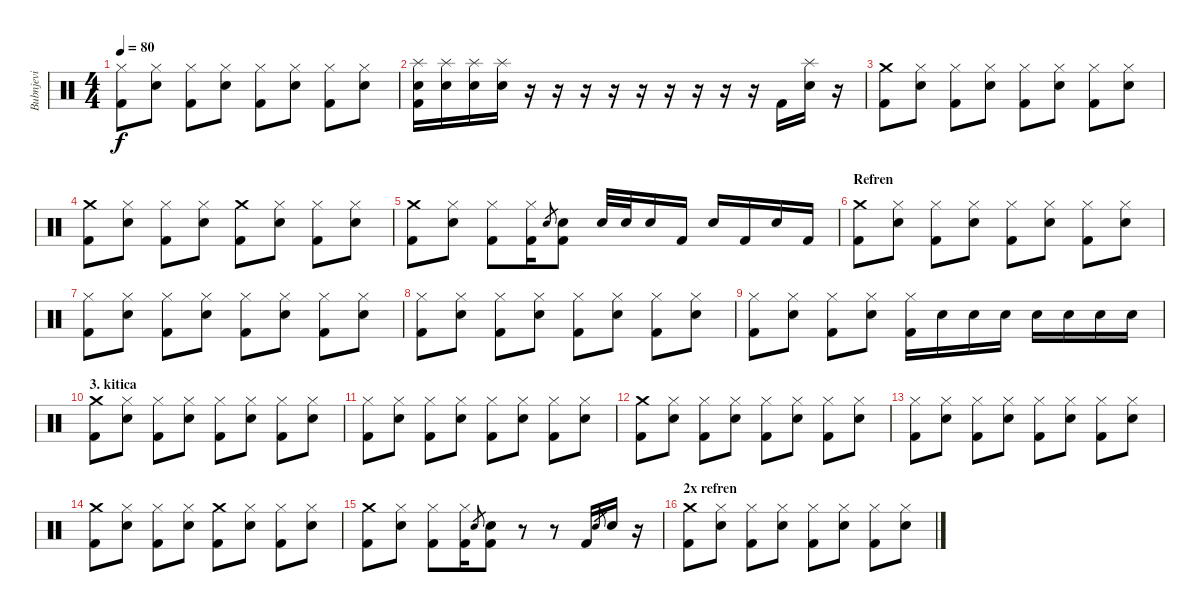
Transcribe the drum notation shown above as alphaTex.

\track ("Bubnjevi" "Bubnjevi") {instrument percussion}
\staff {score}
\articulation defaults
\ts (4 4)
\tempo 80
\clef neutral
\ks c
("Hi-Hat (closed)" "Kick (hit) 2").8{dy f} ("Electric Snare (hit)" "Hi-Hat (closed)").8 ("Hi-Hat (closed)" "Kick (hit) 2").8 ("Electric Snare (hit)" "Hi-Hat (closed)").8 ("Hi-Hat (closed)" "Kick (hit) 2").8 ("Electric Snare (hit)" "Hi-Hat (closed)").8 ("Hi-Hat (closed)" "Kick (hit) 2").8 ("Electric Snare (hit)" "Hi-Hat (closed)").8 |
("Splash (hit)" "Electric Snare (hit)" "Kick (hit) 2").16 ("Splash (hit)" "Electric Snare (hit)").16 ("Splash (hit)" "Electric Snare (hit)").16 ("Splash (hit)" "Electric Snare (hit)").16 r.16 r.16 r.16 r.16 r.16 r.16 r.16 r.16 r.16 "Kick (hit) 2".16 ("Splash (hit)" "Electric Snare (hit)").16 r.16 |
("Crash medium (hit)" "Kick (hit) 2").8 ("Electric Snare (hit)" "Hi-Hat (closed)").8 ("Hi-Hat (closed)" "Kick (hit) 2").8 ("Electric Snare (hit)" "Hi-Hat (closed)").8 ("Hi-Hat (closed)" "Kick (hit) 2").8 ("Electric Snare (hit)" "Hi-Hat (closed)").8 ("Hi-Hat (closed)" "Kick (hit) 2").8 ("Electric Snare (hit)" "Hi-Hat (closed)").8 |
("Crash medium (hit)" "Kick (hit) 2").8 ("Electric Snare (hit)" "Hi-Hat (closed)").8 ("Hi-Hat (closed)" "Kick (hit) 2").8 ("Electric Snare (hit)" "Hi-Hat (closed)").8 ("Crash medium (hit)" "Kick (hit) 2").8 ("Electric Snare (hit)" "Hi-Hat (closed)").8 ("Hi-Hat (closed)" "Kick (hit) 2").8 ("Electric Snare (hit)" "Hi-Hat (closed)").8 |
("Crash medium (hit)" "Kick (hit) 2").8 ("Electric Snare (hit)" "Hi-Hat (closed)").8 ("Hi-Hat (closed)" "Kick (hit) 2").8 ("Hi-Hat (closed)" "Kick (hit) 2").16 "Electric Snare (hit)".8{gr} ("Electric Snare (hit)" "Kick (hit) 2").8 "Electric Snare (hit)".32 "Electric Snare (hit)".32 "Electric Snare (hit)".16 "Kick (hit) 2".16 "Electric Snare (hit)".16 "Kick (hit) 2".16 "Electric Snare (hit)".16 "Kick (hit) 2".16 |
\section ("" "Refren")
("Crash medium (hit)" "Kick (hit) 2").8 ("Electric Snare (hit)" "Hi-Hat (closed)").8 ("Hi-Hat (closed)" "Kick (hit) 2").8 ("Electric Snare (hit)" "Hi-Hat (closed)").8 ("Hi-Hat (closed)" "Kick (hit) 2").8 ("Electric Snare (hit)" "Hi-Hat (closed)").8 ("Hi-Hat (closed)" "Kick (hit) 2").8 ("Electric Snare (hit)" "Hi-Hat (closed)").8 |
("Hi-Hat (closed)" "Kick (hit) 2").8 ("Electric Snare (hit)" "Hi-Hat (closed)").8 ("Hi-Hat (closed)" "Kick (hit) 2").8 ("Electric Snare (hit)" "Hi-Hat (closed)").8 ("Hi-Hat (closed)" "Kick (hit) 2").8 ("Electric Snare (hit)" "Hi-Hat (closed)").8 ("Hi-Hat (closed)" "Kick (hit) 2").8 ("Electric Snare (hit)" "Hi-Hat (closed)").8 |
("Hi-Hat (closed)" "Kick (hit) 2").8 ("Electric Snare (hit)" "Hi-Hat (closed)").8 ("Hi-Hat (closed)" "Kick (hit) 2").8 ("Electric Snare (hit)" "Hi-Hat (closed)").8 ("Hi-Hat (closed)" "Kick (hit) 2").8 ("Electric Snare (hit)" "Hi-Hat (closed)").8 ("Hi-Hat (closed)" "Kick (hit) 2").8 ("Electric Snare (hit)" "Hi-Hat (closed)").8 |
("Hi-Hat (closed)" "Kick (hit) 2").8 ("Electric Snare (hit)" "Hi-Hat (closed)").8 ("Hi-Hat (closed)" "Kick (hit) 2").8 ("Electric Snare (hit)" "Hi-Hat (closed)").8 ("Hi-Hat (closed)" "Kick (hit) 2").16 "Electric Snare (hit)".16 "Electric Snare (hit)".16 "Electric Snare (hit)".16 "Electric Snare (hit)".16 "Electric Snare (hit)".16 "Electric Snare (hit)".16 "Electric Snare (hit)".16 |
\section ("" "3. kitica")
("Crash medium (hit)" "Kick (hit) 2").8 ("Electric Snare (hit)" "Hi-Hat (closed)").8 ("Hi-Hat (closed)" "Kick (hit) 2").8 ("Electric Snare (hit)" "Hi-Hat (closed)").8 ("Hi-Hat (closed)" "Kick (hit) 2").8 ("Electric Snare (hit)" "Hi-Hat (closed)").8 ("Hi-Hat (closed)" "Kick (hit) 2").8 ("Electric Snare (hit)" "Hi-Hat (closed)").8 |
("Hi-Hat (closed)" "Kick (hit) 2").8 ("Electric Snare (hit)" "Hi-Hat (closed)").8 ("Hi-Hat (closed)" "Kick (hit) 2").8 ("Electric Snare (hit)" "Hi-Hat (closed)").8 ("Hi-Hat (closed)" "Kick (hit) 2").8 ("Electric Snare (hit)" "Hi-Hat (closed)").8 ("Hi-Hat (closed)" "Kick (hit) 2").8 ("Electric Snare (hit)" "Hi-Hat (closed)").8 |
("Crash medium (hit)" "Kick (hit) 2").8 ("Electric Snare (hit)" "Hi-Hat (closed)").8 ("Hi-Hat (closed)" "Kick (hit) 2").8 ("Electric Snare (hit)" "Hi-Hat (closed)").8 ("Hi-Hat (closed)" "Kick (hit) 2").8 ("Electric Snare (hit)" "Hi-Hat (closed)").8 ("Hi-Hat (closed)" "Kick (hit) 2").8 ("Electric Snare (hit)" "Hi-Hat (closed)").8 |
("Hi-Hat (closed)" "Kick (hit) 2").8 ("Electric Snare (hit)" "Hi-Hat (closed)").8 ("Hi-Hat (closed)" "Kick (hit) 2").8 ("Electric Snare (hit)" "Hi-Hat (closed)").8 ("Hi-Hat (closed)" "Kick (hit) 2").8 ("Electric Snare (hit)" "Hi-Hat (closed)").8 ("Hi-Hat (closed)" "Kick (hit) 2").8 ("Electric Snare (hit)" "Hi-Hat (closed)").8 |
("Crash medium (hit)" "Kick (hit) 2").8 ("Electric Snare (hit)" "Hi-Hat (closed)").8 ("Hi-Hat (closed)" "Kick (hit) 2").8 ("Electric Snare (hit)" "Hi-Hat (closed)").8 ("Crash medium (hit)" "Kick (hit) 2").8 ("Electric Snare (hit)" "Hi-Hat (closed)").8 ("Hi-Hat (closed)" "Kick (hit) 2").8 ("Electric Snare (hit)" "Hi-Hat (closed)").8 |
("Crash medium (hit)" "Kick (hit) 2").8 ("Electric Snare (hit)" "Hi-Hat (closed)").8 ("Hi-Hat (closed)" "Kick (hit) 2").8 ("Hi-Hat (closed)" "Kick (hit) 2").16 "Electric Snare (hit)".8{gr} ("Electric Snare (hit)" "Kick (hit) 2").8 r.8 r.8 "Kick (hit) 2".16 "Electric Snare (hit)".8{gr} "Electric Snare (hit)".16 r.16 |
\section ("" "2x refren")
("Crash medium (hit)" "Kick (hit) 2").8 ("Electric Snare (hit)" "Hi-Hat (closed)").8 ("Hi-Hat (closed)" "Kick (hit) 2").8 ("Electric Snare (hit)" "Hi-Hat (closed)").8 ("Hi-Hat (closed)" "Kick (hit) 2").8 ("Electric Snare (hit)" "Hi-Hat (closed)").8 ("Hi-Hat (closed)" "Kick (hit) 2").8 ("Electric Snare (hit)" "Hi-Hat (closed)").8
